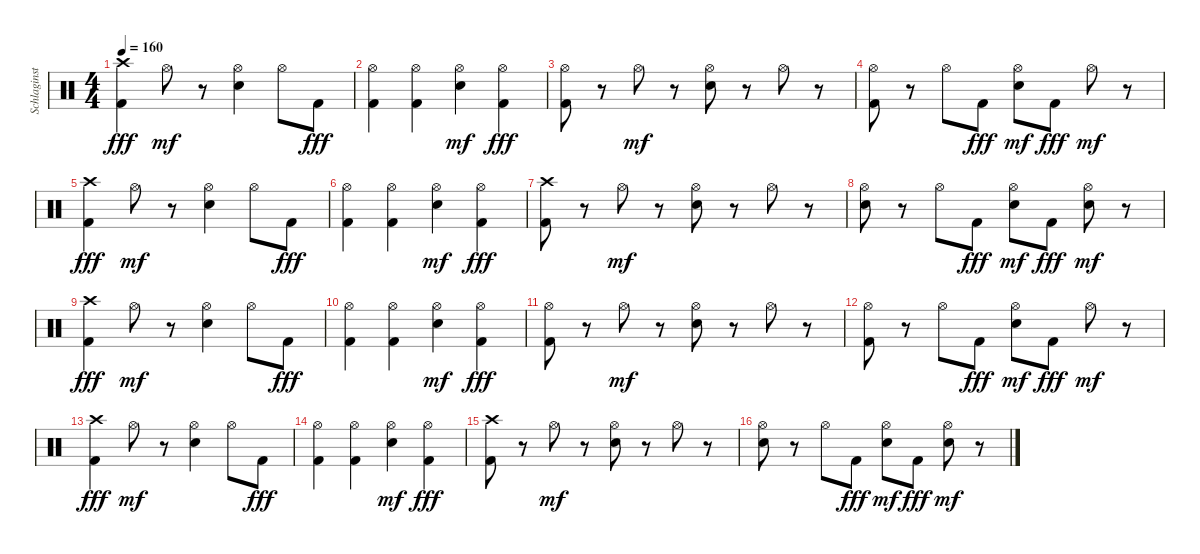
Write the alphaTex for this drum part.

\track ("Schlaginstrumente - Auswahl" "Schlaginst") {instrument percussion}
\staff {score}
\articulation defaults
\ts (4 4)
\tempo 160
\clef neutral
\ks c
("Crash high (hit)" "Kick (hit) 2").4{dy fff} "Hi-Hat (open)".8{dy mf} r.8 ("Hi-Hat (open)" "Electric Snare (hit)").4 "Hi-Hat (open)".8 "Kick (hit) 2".8{dy fff} |
("Hi-Hat (open)" "Kick (hit) 2").4 ("Hi-Hat (open)" "Kick (hit) 2").4 ("Hi-Hat (open)" "Electric Snare (hit)").4{dy mf} ("Hi-Hat (open)" "Kick (hit) 2").4{dy fff} |
("Hi-Hat (open)" "Kick (hit) 2").8 r.8 "Hi-Hat (open)".8{dy mf} r.8 ("Hi-Hat (open)" "Electric Snare (hit)").8 r.8 "Hi-Hat (open)".8 r.8 |
("Hi-Hat (open)" "Kick (hit) 2").8 r.8 "Hi-Hat (open)".8 "Kick (hit) 2".8{dy fff} ("Hi-Hat (open)" "Electric Snare (hit)").8{dy mf} "Kick (hit) 2".8{dy fff} "Hi-Hat (open)".8{dy mf} r.8 |
("Crash high (hit)" "Kick (hit) 2").4{dy fff} "Hi-Hat (open)".8{dy mf} r.8 ("Hi-Hat (open)" "Electric Snare (hit)").4 "Hi-Hat (open)".8 "Kick (hit) 2".8{dy fff} |
("Hi-Hat (open)" "Kick (hit) 2").4 ("Hi-Hat (open)" "Kick (hit) 2").4 ("Hi-Hat (open)" "Electric Snare (hit)").4{dy mf} ("Hi-Hat (open)" "Kick (hit) 2").4{dy fff} |
("Crash high (hit)" "Kick (hit) 2").8 r.8 "Hi-Hat (open)".8{dy mf} r.8 ("Hi-Hat (open)" "Electric Snare (hit)").8 r.8 "Hi-Hat (open)".8 r.8 |
("Hi-Hat (open)" "Electric Snare (hit)").8 r.8 "Hi-Hat (open)".8 "Kick (hit) 2".8{dy fff} ("Hi-Hat (open)" "Electric Snare (hit)").8{dy mf} "Kick (hit) 2".8{dy fff} ("Hi-Hat (open)" "Electric Snare (hit)").8{dy mf} r.8 |
("Crash high (hit)" "Kick (hit) 2").4{dy fff} "Hi-Hat (open)".8{dy mf} r.8 ("Hi-Hat (open)" "Electric Snare (hit)").4 "Hi-Hat (open)".8 "Kick (hit) 2".8{dy fff} |
("Hi-Hat (open)" "Kick (hit) 2").4 ("Hi-Hat (open)" "Kick (hit) 2").4 ("Hi-Hat (open)" "Electric Snare (hit)").4{dy mf} ("Hi-Hat (open)" "Kick (hit) 2").4{dy fff} |
("Hi-Hat (open)" "Kick (hit) 2").8 r.8 "Hi-Hat (open)".8{dy mf} r.8 ("Hi-Hat (open)" "Electric Snare (hit)").8 r.8 "Hi-Hat (open)".8 r.8 |
("Hi-Hat (open)" "Kick (hit) 2").8 r.8 "Hi-Hat (open)".8 "Kick (hit) 2".8{dy fff} ("Hi-Hat (open)" "Electric Snare (hit)").8{dy mf} "Kick (hit) 2".8{dy fff} "Hi-Hat (open)".8{dy mf} r.8 |
("Crash high (hit)" "Kick (hit) 2").4{dy fff} "Hi-Hat (open)".8{dy mf} r.8 ("Hi-Hat (open)" "Electric Snare (hit)").4 "Hi-Hat (open)".8 "Kick (hit) 2".8{dy fff} |
("Hi-Hat (open)" "Kick (hit) 2").4 ("Hi-Hat (open)" "Kick (hit) 2").4 ("Hi-Hat (open)" "Electric Snare (hit)").4{dy mf} ("Hi-Hat (open)" "Kick (hit) 2").4{dy fff} |
("Crash high (hit)" "Kick (hit) 2").8 r.8 "Hi-Hat (open)".8{dy mf} r.8 ("Hi-Hat (open)" "Electric Snare (hit)").8 r.8 "Hi-Hat (open)".8 r.8 |
("Hi-Hat (open)" "Electric Snare (hit)").8 r.8 "Hi-Hat (open)".8 "Kick (hit) 2".8{dy fff} ("Hi-Hat (open)" "Electric Snare (hit)").8{dy mf} "Kick (hit) 2".8{dy fff} ("Hi-Hat (open)" "Electric Snare (hit)").8{dy mf} r.8
